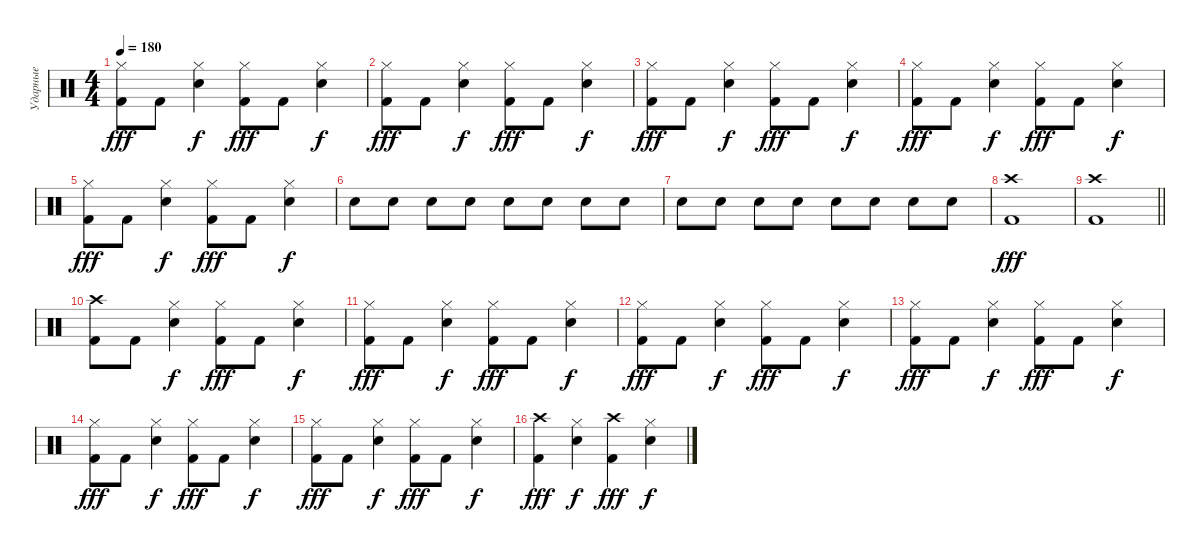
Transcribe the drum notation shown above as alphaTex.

\track ("Ударные" "Ударные") {instrument percussion}
\staff
\articulation defaults
\ts (4 4)
\tempo 180
\clef neutral
\ks c
("Kick (hit) 2" "Hi-Hat (closed)").8{dy fff} "Kick (hit) 2".8 ("Snare (hit) 2" "Hi-Hat (closed)").4{dy f} ("Kick (hit) 2" "Hi-Hat (closed)").8{dy fff} "Kick (hit) 2".8 ("Snare (hit) 2" "Hi-Hat (closed)").4{dy f} |
("Kick (hit) 2" "Hi-Hat (closed)").8{dy fff} "Kick (hit) 2".8 ("Snare (hit) 2" "Hi-Hat (closed)").4{dy f} ("Kick (hit) 2" "Hi-Hat (closed)").8{dy fff} "Kick (hit) 2".8 ("Snare (hit) 2" "Hi-Hat (closed)").4{dy f} |
("Kick (hit) 2" "Hi-Hat (closed)").8{dy fff} "Kick (hit) 2".8 ("Snare (hit) 2" "Hi-Hat (closed)").4{dy f} ("Kick (hit) 2" "Hi-Hat (closed)").8{dy fff} "Kick (hit) 2".8 ("Snare (hit) 2" "Hi-Hat (closed)").4{dy f} |
("Kick (hit) 2" "Hi-Hat (closed)").8{dy fff} "Kick (hit) 2".8 ("Snare (hit) 2" "Hi-Hat (closed)").4{dy f} ("Kick (hit) 2" "Hi-Hat (closed)").8{dy fff} "Kick (hit) 2".8 ("Snare (hit) 2" "Hi-Hat (closed)").4{dy f} |
("Kick (hit) 2" "Hi-Hat (closed)").8{dy fff} "Kick (hit) 2".8 ("Snare (hit) 2" "Hi-Hat (closed)").4{dy f} ("Kick (hit) 2" "Hi-Hat (closed)").8{dy fff} "Kick (hit) 2".8 ("Snare (hit) 2" "Hi-Hat (closed)").4{dy f} |
"Snare (hit) 2".8 "Snare (hit) 2".8 "Snare (hit) 2".8 "Snare (hit) 2".8 "Snare (hit) 2".8 "Snare (hit) 2".8 "Snare (hit) 2".8 "Snare (hit) 2".8 |
"Snare (hit) 2".8 "Snare (hit) 2".8 "Snare (hit) 2".8 "Snare (hit) 2".8 "Snare (hit) 2".8 "Snare (hit) 2".8 "Snare (hit) 2".8 "Snare (hit) 2".8 |
("Kick (hit) 2" "Crash high (hit)").1{dy fff} |
\barLineRight lightlight
("Kick (hit) 2" "Crash high (hit)").1 |
("Kick (hit) 2" "Crash high (hit)").8 "Kick (hit) 2".8 ("Snare (hit) 2" "Hi-Hat (closed)").4{dy f} ("Kick (hit) 2" "Hi-Hat (closed)").8{dy fff} "Kick (hit) 2".8 ("Snare (hit) 2" "Hi-Hat (closed)").4{dy f} |
("Kick (hit) 2" "Hi-Hat (closed)").8{dy fff} "Kick (hit) 2".8 ("Snare (hit) 2" "Hi-Hat (closed)").4{dy f} ("Kick (hit) 2" "Hi-Hat (closed)").8{dy fff} "Kick (hit) 2".8 ("Snare (hit) 2" "Hi-Hat (closed)").4{dy f} |
("Kick (hit) 2" "Hi-Hat (closed)").8{dy fff} "Kick (hit) 2".8 ("Snare (hit) 2" "Hi-Hat (closed)").4{dy f} ("Kick (hit) 2" "Hi-Hat (closed)").8{dy fff} "Kick (hit) 2".8 ("Snare (hit) 2" "Hi-Hat (closed)").4{dy f} |
("Kick (hit) 2" "Hi-Hat (closed)").8{dy fff} "Kick (hit) 2".8 ("Snare (hit) 2" "Hi-Hat (closed)").4{dy f} ("Kick (hit) 2" "Hi-Hat (closed)").8{dy fff} "Kick (hit) 2".8 ("Snare (hit) 2" "Hi-Hat (closed)").4{dy f} |
("Kick (hit) 2" "Hi-Hat (closed)").8{dy fff} "Kick (hit) 2".8 ("Snare (hit) 2" "Hi-Hat (closed)").4{dy f} ("Kick (hit) 2" "Hi-Hat (closed)").8{dy fff} "Kick (hit) 2".8 ("Snare (hit) 2" "Hi-Hat (closed)").4{dy f} |
("Kick (hit) 2" "Hi-Hat (closed)").8{dy fff} "Kick (hit) 2".8 ("Snare (hit) 2" "Hi-Hat (closed)").4{dy f} ("Kick (hit) 2" "Hi-Hat (closed)").8{dy fff} "Kick (hit) 2".8 ("Snare (hit) 2" "Hi-Hat (closed)").4{dy f} |
("Kick (hit) 2" "Crash high (hit)").4{dy fff} ("Snare (hit) 2" "Hi-Hat (closed)").4{dy f} ("Kick (hit) 2" "Crash high (hit)").4{dy fff} ("Snare (hit) 2" "Hi-Hat (closed)").4{dy f}
